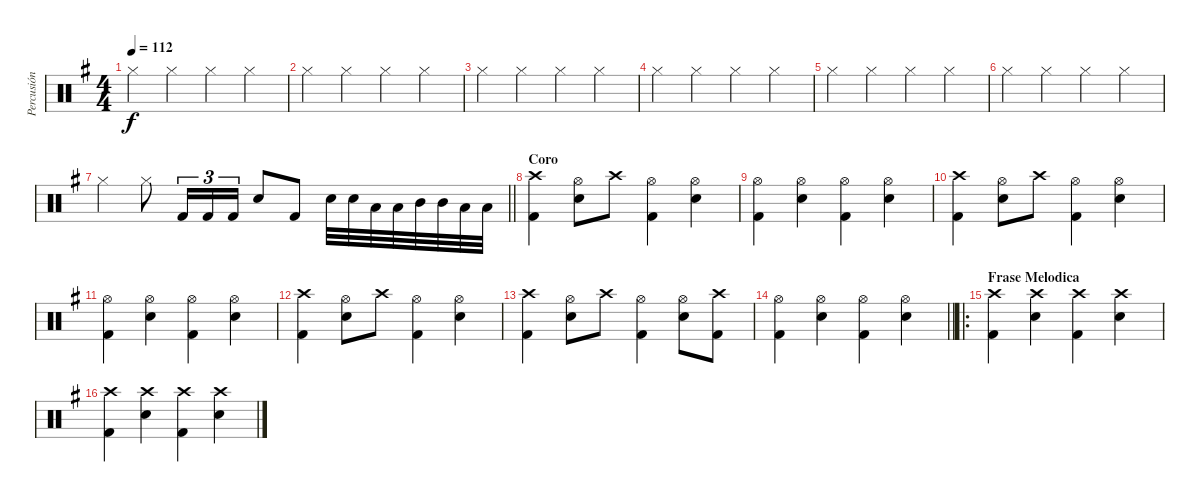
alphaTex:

\track ("Percusión" "Percusión") {instrument percussion}
\staff {score}
\articulation defaults
\ts (4 4)
\tempo 112
\clef neutral
\ks g "Hi-Hat (closed)".4{dy f} "Hi-Hat (closed)".4 "Hi-Hat (closed)".4 "Hi-Hat (closed)".4
|
"Hi-Hat (closed)".4 "Hi-Hat (closed)".4 "Hi-Hat (closed)".4 "Hi-Hat (closed)".4 |
"Hi-Hat (closed)".4 "Hi-Hat (closed)".4 "Hi-Hat (closed)".4 "Hi-Hat (closed)".4 |
"Hi-Hat (closed)".4 "Hi-Hat (closed)".4 "Hi-Hat (closed)".4 "Hi-Hat (closed)".4 |
"Hi-Hat (closed)".4 "Hi-Hat (closed)".4 "Hi-Hat (closed)".4 "Hi-Hat (closed)".4 |
"Hi-Hat (closed)".4 "Hi-Hat (closed)".4 "Hi-Hat (closed)".4 "Hi-Hat (closed)".4 |
\barLineRight lightlight "Hi-Hat (closed)".4 "Hi-Hat (closed)".8 "Kick (hit) 2".16{tu (3 2)} "Kick (hit) 2".16{tu (3 2)} "Kick (hit) 2".16{tu (3 2)} "Electric Snare (hit)".8 "Kick (hit) 2".8 "Electric Snare (hit)".32 "Electric Snare (hit)".32 "Low Tom (hit)".32 "Low Tom (hit)".32 "Mid Tom (hit)".32 "Mid Tom (hit)".32 "Low Tom (hit)".32 "Low Tom (hit)".32
|
\section ("" "Coro")
("Crash high (hit)" "Kick (hit) 2").4 ("Hi-Hat (open)" "Electric Snare (hit)").8 "Crash high (hit)".8 ("Hi-Hat (open)" "Kick (hit) 2").4 ("Hi-Hat (open)" "Electric Snare (hit)").4 |
("Hi-Hat (open)" "Kick (hit) 2").4 ("Hi-Hat (open)" "Electric Snare (hit)").4 ("Hi-Hat (open)" "Kick (hit) 2").4 ("Hi-Hat (open)" "Electric Snare (hit)").4 |
("Crash high (hit)" "Kick (hit) 2").4 ("Hi-Hat (open)" "Electric Snare (hit)").8 "Crash high (hit)".8 ("Hi-Hat (open)" "Kick (hit) 2").4 ("Hi-Hat (open)" "Electric Snare (hit)").4 |
("Hi-Hat (open)" "Kick (hit) 2").4 ("Hi-Hat (open)" "Electric Snare (hit)").4 ("Hi-Hat (open)" "Kick (hit) 2").4 ("Hi-Hat (open)" "Electric Snare (hit)").4 |
("Crash high (hit)" "Kick (hit) 2").4 ("Hi-Hat (open)" "Electric Snare (hit)").8 "Crash high (hit)".8 ("Hi-Hat (open)" "Kick (hit) 2").4 ("Hi-Hat (open)" "Electric Snare (hit)").4 |
("Crash high (hit)" "Kick (hit) 2").4 ("Hi-Hat (open)" "Electric Snare (hit)").8 "Crash high (hit)".8 ("Hi-Hat (open)" "Kick (hit) 2").4 ("Hi-Hat (open)" "Electric Snare (hit)").8 ("Crash high (hit)" "Kick (hit) 2").8 |
\barLineRight lightlight
("Hi-Hat (open)" "Kick (hit) 2").4 ("Hi-Hat (open)" "Electric Snare (hit)").4 ("Hi-Hat (open)" "Kick (hit) 2").4 ("Hi-Hat (open)" "Electric Snare (hit)").4 |
\ro
\section ("" "Frase Melodica")
("Crash high (hit)" "Kick (hit) 2").4 ("Crash high (hit)" "Electric Snare (hit)").4 ("Crash high (hit)" "Kick (hit) 2").4 ("Crash high (hit)" "Electric Snare (hit)").4 |
("Crash high (hit)" "Kick (hit) 2").4 ("Crash high (hit)" "Electric Snare (hit)").4 ("Crash high (hit)" "Kick (hit) 2").4 ("Crash high (hit)" "Electric Snare (hit)").4
